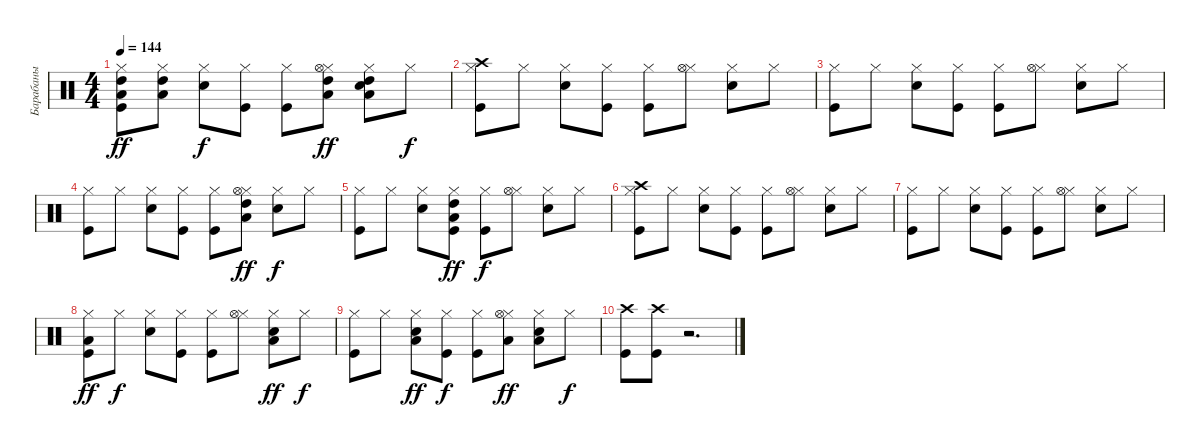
\track ("Барабаны" "Барабаны") {instrument percussion}
\staff {score}
\articulation defaults
\ts (4 4)
\tempo 144
\clef neutral
\ks c
("Kick (hit)" "Hi-Hat (closed)" "Low Floor Tom (hit)" "High Tom (hit)").8{dy ff} ("Hi-Hat (closed)" "Low Floor Tom (hit)" "High Tom (hit)").8 ("Snare (hit) 2" "Hi-Hat (closed)").8{dy f} ("Kick (hit)" "Hi-Hat (closed)").8 ("Kick (hit)" "Hi-Hat (closed)").8 ("Hi-Hat (closed)" "Low Floor Tom (hit)" "High Tom (hit)" "Hi-Hat (open)").8{dy ff} ("Snare (hit) 2" "Hi-Hat (closed)" "Low Floor Tom (hit)" "High Tom (hit)").8 "Hi-Hat (closed)".8{dy f} |
("Kick (hit)" "Hi-Hat (closed)" "Crash high (hit)").8 "Hi-Hat (closed)".8 ("Snare (hit) 2" "Hi-Hat (closed)").8 ("Kick (hit)" "Hi-Hat (closed)").8 ("Kick (hit)" "Hi-Hat (closed)").8 ("Hi-Hat (closed)" "Hi-Hat (open)").8 ("Snare (hit) 2" "Hi-Hat (closed)").8 "Hi-Hat (closed)".8 |
("Kick (hit)" "Hi-Hat (closed)").8 "Hi-Hat (closed)".8 ("Snare (hit) 2" "Hi-Hat (closed)").8 ("Kick (hit)" "Hi-Hat (closed)").8 ("Kick (hit)" "Hi-Hat (closed)").8 ("Hi-Hat (closed)" "Hi-Hat (open)").8 ("Snare (hit) 2" "Hi-Hat (closed)").8 "Hi-Hat (closed)".8 |
("Kick (hit)" "Hi-Hat (closed)").8 "Hi-Hat (closed)".8 ("Snare (hit) 2" "Hi-Hat (closed)").8 ("Kick (hit)" "Hi-Hat (closed)").8 ("Kick (hit)" "Hi-Hat (closed)").8 ("Hi-Hat (closed)" "Low Floor Tom (hit)" "High Tom (hit)" "Hi-Hat (open)").8{dy ff} ("Snare (hit) 2" "Hi-Hat (closed)").8{dy f} "Hi-Hat (closed)".8 |
("Kick (hit)" "Hi-Hat (closed)").8 "Hi-Hat (closed)".8 ("Snare (hit) 2" "Hi-Hat (closed)").8 ("Kick (hit)" "Hi-Hat (closed)" "Low Floor Tom (hit)" "High Tom (hit)").8{dy ff} ("Kick (hit)" "Hi-Hat (closed)").8{dy f} ("Hi-Hat (closed)" "Hi-Hat (open)").8 ("Snare (hit) 2" "Hi-Hat (closed)").8 "Hi-Hat (closed)".8 |
("Kick (hit)" "Hi-Hat (closed)" "Crash high (hit)").8 "Hi-Hat (closed)".8 ("Snare (hit) 2" "Hi-Hat (closed)").8 ("Kick (hit)" "Hi-Hat (closed)").8 ("Kick (hit)" "Hi-Hat (closed)").8 ("Hi-Hat (closed)" "Hi-Hat (open)").8 ("Snare (hit) 2" "Hi-Hat (closed)").8 "Hi-Hat (closed)".8 |
("Kick (hit)" "Hi-Hat (closed)").8 "Hi-Hat (closed)".8 ("Snare (hit) 2" "Hi-Hat (closed)").8 ("Kick (hit)" "Hi-Hat (closed)").8 ("Kick (hit)" "Hi-Hat (closed)").8 ("Hi-Hat (closed)" "Hi-Hat (open)").8 ("Snare (hit) 2" "Hi-Hat (closed)").8 "Hi-Hat (closed)".8 |
("Kick (hit)" "Hi-Hat (closed)" "Low Tom (hit)").8{dy ff} "Hi-Hat (closed)".8{dy f} ("Snare (hit) 2" "Hi-Hat (closed)").8 ("Kick (hit)" "Hi-Hat (closed)").8 ("Kick (hit)" "Hi-Hat (closed)").8 ("Hi-Hat (closed)" "Hi-Hat (open)").8 ("Snare (hit) 2" "Hi-Hat (closed)" "Low Floor Tom (hit)").8{dy ff} "Hi-Hat (closed)".8{dy f} |
("Kick (hit)" "Hi-Hat (closed)").8 "Hi-Hat (closed)".8 ("Snare (hit) 2" "Hi-Hat (closed)" "Low Tom (hit)").8{dy ff} ("Kick (hit)" "Hi-Hat (closed)").8{dy f} ("Kick (hit)" "Hi-Hat (closed)").8 ("Hi-Hat (closed)" "Low Tom (hit)" "Hi-Hat (open)").8{dy ff} ("Snare (hit) 2" "Hi-Hat (closed)" "Low Tom (hit)").8 "Hi-Hat (closed)".8{dy f} |
("Kick (hit)" "Crash high (hit)").8 ("Kick (hit)" "Crash high (hit)").8 r.2{d}
